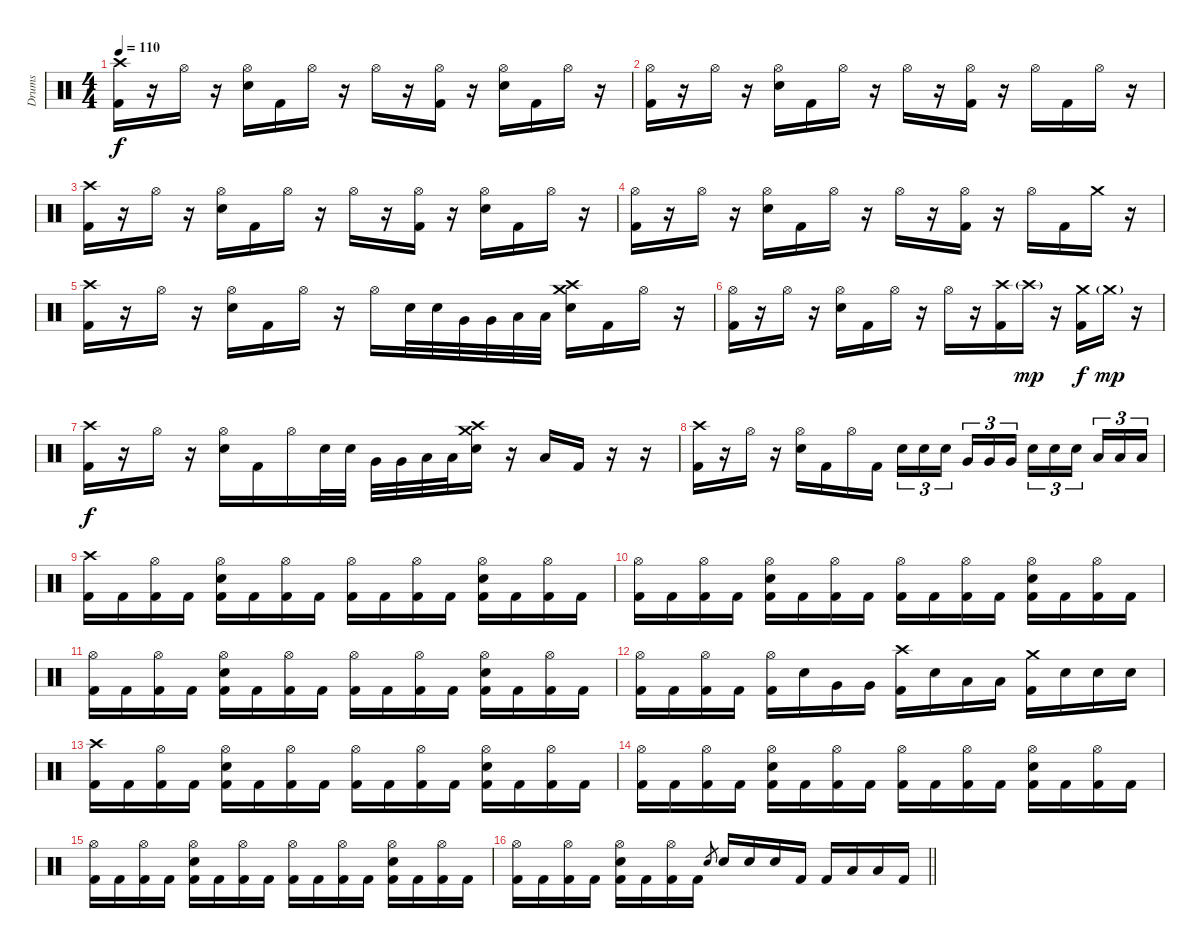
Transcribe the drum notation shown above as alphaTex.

\track ("Drums" "Drums") {instrument percussion}
\staff {score}
\articulation defaults
\ts (4 4)
\tempo 110
\clef neutral
\ks c
("Crash high (hit)" "Kick (hit) 2").16{dy f} r.16 "Hi-Hat (open)".16 r.16 ("Hi-Hat (open)" "Electric Snare (hit)").16 "Kick (hit) 2".16 "Hi-Hat (open)".16 r.16 "Hi-Hat (open)".16 r.16 ("Hi-Hat (open)" "Kick (hit) 2").16 r.16 ("Hi-Hat (open)" "Electric Snare (hit)").16 "Kick (hit) 2".16 "Hi-Hat (open)".16 r.16 |
("Hi-Hat (open)" "Kick (hit) 2").16 r.16 "Hi-Hat (open)".16 r.16 ("Hi-Hat (open)" "Electric Snare (hit)").16 "Kick (hit) 2".16 "Hi-Hat (open)".16 r.16 "Hi-Hat (open)".16 r.16 ("Hi-Hat (open)" "Kick (hit) 2").16 r.16 "Hi-Hat (open)".16 "Kick (hit) 2".16 "Hi-Hat (open)".16 r.16 |
("Crash high (hit)" "Kick (hit) 2").16 r.16 "Hi-Hat (open)".16 r.16 ("Hi-Hat (open)" "Electric Snare (hit)").16 "Kick (hit) 2".16 "Hi-Hat (open)".16 r.16 "Hi-Hat (open)".16 r.16 ("Hi-Hat (open)" "Kick (hit) 2").16 r.16 ("Hi-Hat (open)" "Electric Snare (hit)").16 "Kick (hit) 2".16 "Hi-Hat (open)".16 r.16 |
("Hi-Hat (open)" "Kick (hit) 2").16 r.16 "Hi-Hat (open)".16 r.16 ("Hi-Hat (open)" "Electric Snare (hit)").16 "Kick (hit) 2".16 "Hi-Hat (open)".16 r.16 "Hi-Hat (open)".16 r.16 ("Hi-Hat (open)" "Kick (hit) 2").16 r.16 "Hi-Hat (open)".16 "Kick (hit) 2".16 "Crash medium (hit)".16 r.16 |
("Crash high (hit)" "Kick (hit) 2").16 r.16 "Hi-Hat (open)".16 r.16 ("Hi-Hat (open)" "Electric Snare (hit)").16 "Kick (hit) 2".16 "Hi-Hat (open)".16 r.16 "Hi-Hat (open)".16 "Electric Snare (hit)".32 "Electric Snare (hit)".32 "Very Low Tom (hit)".32 "Very Low Tom (hit)".32 "Low Floor Tom (hit)".32 "Low Floor Tom (hit)".32 ("Crash high (hit)" "Electric Snare (hit)" "Crash medium (hit)").16 "Kick (hit) 2".16 "Hi-Hat (open)".16 r.16 |
("Hi-Hat (open)" "Kick (hit) 2").16 r.16 "Hi-Hat (open)".16 r.16 ("Hi-Hat (open)" "Electric Snare (hit)").16 "Kick (hit) 2".16 "Hi-Hat (open)".16 r.16 "Hi-Hat (open)".16 r.16 ("Crash high (hit)" "Kick (hit) 2").16 "Crash high (hit)"{g}.16{dy mp} r.16 ("Crash medium (hit)" "Kick (hit) 2").16{dy f} "Crash medium (hit)"{g}.16{dy mp} r.16 |
("Crash high (hit)" "Kick (hit) 2").16{dy f} r.16 "Hi-Hat (open)".16 r.16 ("Hi-Hat (open)" "Electric Snare (hit)").16 "Kick (hit) 2".16 "Hi-Hat (open)".16 "Electric Snare (hit)".32 "Electric Snare (hit)".32 "Very Low Tom (hit)".32 "Very Low Tom (hit)".32 "Low Floor Tom (hit)".32 "Low Floor Tom (hit)".32 ("Crash high (hit)" "Electric Snare (hit)" "Crash medium (hit)").16 r.16 "Low Floor Tom (hit)".16 "Kick (hit) 2".16 r.16 r.16 |
("Crash high (hit)" "Kick (hit) 2").16 r.16 "Hi-Hat (open)".16 r.16 ("Hi-Hat (open)" "Electric Snare (hit)").16 "Kick (hit) 2".16 "Hi-Hat (open)".16 "Kick (hit) 2".16 "Electric Snare (hit)".16{tu (3 2)} "Electric Snare (hit)".16{tu (3 2)} "Electric Snare (hit)".16{tu (3 2) beam splitsecondary} "Very Low Tom (hit)".16{tu (3 2)} "Very Low Tom (hit)".16{tu (3 2)} "Very Low Tom (hit)".16{tu (3 2)} "Electric Snare (hit)".16{tu (3 2)} "Electric Snare (hit)".16{tu (3 2)} "Electric Snare (hit)".16{tu (3 2) beam splitsecondary} "Low Floor Tom (hit)".16{tu (3 2)} "Low Floor Tom (hit)".16{tu (3 2)} "Low Floor Tom (hit)".16{tu (3 2)} |
("Crash high (hit)" "Kick (hit) 2").16 "Kick (hit) 2".16 ("Hi-Hat (open)" "Kick (hit) 2").16 "Kick (hit) 2".16 ("Hi-Hat (open)" "Kick (hit) 2" "Electric Snare (hit)").16 "Kick (hit) 2".16 ("Hi-Hat (open)" "Kick (hit) 2").16 "Kick (hit) 2".16 ("Hi-Hat (open)" "Kick (hit) 2").16 "Kick (hit) 2".16 ("Hi-Hat (open)" "Kick (hit) 2").16 "Kick (hit) 2".16 ("Hi-Hat (open)" "Kick (hit) 2" "Electric Snare (hit)").16 "Kick (hit) 2".16 ("Hi-Hat (open)" "Kick (hit) 2").16 "Kick (hit) 2".16 |
("Hi-Hat (open)" "Kick (hit) 2").16 "Kick (hit) 2".16 ("Hi-Hat (open)" "Kick (hit) 2").16 "Kick (hit) 2".16 ("Hi-Hat (open)" "Kick (hit) 2" "Electric Snare (hit)").16 "Kick (hit) 2".16 ("Hi-Hat (open)" "Kick (hit) 2").16 "Kick (hit) 2".16 ("Hi-Hat (open)" "Kick (hit) 2").16 "Kick (hit) 2".16 ("Hi-Hat (open)" "Kick (hit) 2").16 "Kick (hit) 2".16 ("Hi-Hat (open)" "Kick (hit) 2" "Electric Snare (hit)").16 "Kick (hit) 2".16 ("Hi-Hat (open)" "Kick (hit) 2").16 "Kick (hit) 2".16 |
("Hi-Hat (open)" "Kick (hit) 2").16 "Kick (hit) 2".16 ("Hi-Hat (open)" "Kick (hit) 2").16 "Kick (hit) 2".16 ("Hi-Hat (open)" "Kick (hit) 2" "Electric Snare (hit)").16 "Kick (hit) 2".16 ("Hi-Hat (open)" "Kick (hit) 2").16 "Kick (hit) 2".16 ("Hi-Hat (open)" "Kick (hit) 2").16 "Kick (hit) 2".16 ("Hi-Hat (open)" "Kick (hit) 2").16 "Kick (hit) 2".16 ("Hi-Hat (open)" "Kick (hit) 2" "Electric Snare (hit)").16 "Kick (hit) 2".16 ("Hi-Hat (open)" "Kick (hit) 2").16 "Kick (hit) 2".16 |
("Hi-Hat (open)" "Kick (hit) 2").16 "Kick (hit) 2".16 ("Hi-Hat (open)" "Kick (hit) 2").16 "Kick (hit) 2".16 ("Hi-Hat (open)" "Kick (hit) 2").16 "Electric Snare (hit)".16 "Very Low Tom (hit)".16 "Very Low Tom (hit)".16 ("Crash high (hit)" "Kick (hit) 2").16 "Electric Snare (hit)".16 "Low Floor Tom (hit)".16 "Low Floor Tom (hit)".16 ("Crash medium (hit)" "Kick (hit) 2").16 "Electric Snare (hit)".16 "Electric Snare (hit)".16 "Electric Snare (hit)".16 |
("Crash high (hit)" "Kick (hit) 2").16 "Kick (hit) 2".16 ("Hi-Hat (open)" "Kick (hit) 2").16 "Kick (hit) 2".16 ("Hi-Hat (open)" "Kick (hit) 2" "Electric Snare (hit)").16 "Kick (hit) 2".16 ("Hi-Hat (open)" "Kick (hit) 2").16 "Kick (hit) 2".16 ("Hi-Hat (open)" "Kick (hit) 2").16 "Kick (hit) 2".16 ("Hi-Hat (open)" "Kick (hit) 2").16 "Kick (hit) 2".16 ("Hi-Hat (open)" "Kick (hit) 2" "Electric Snare (hit)").16 "Kick (hit) 2".16 ("Hi-Hat (open)" "Kick (hit) 2").16 "Kick (hit) 2".16 |
("Hi-Hat (open)" "Kick (hit) 2").16 "Kick (hit) 2".16 ("Hi-Hat (open)" "Kick (hit) 2").16 "Kick (hit) 2".16 ("Hi-Hat (open)" "Kick (hit) 2" "Electric Snare (hit)").16 "Kick (hit) 2".16 ("Hi-Hat (open)" "Kick (hit) 2").16 "Kick (hit) 2".16 ("Hi-Hat (open)" "Kick (hit) 2").16 "Kick (hit) 2".16 ("Hi-Hat (open)" "Kick (hit) 2").16 "Kick (hit) 2".16 ("Hi-Hat (open)" "Kick (hit) 2" "Electric Snare (hit)").16 "Kick (hit) 2".16 ("Hi-Hat (open)" "Kick (hit) 2").16 "Kick (hit) 2".16 |
("Hi-Hat (open)" "Kick (hit) 2").16 "Kick (hit) 2".16 ("Hi-Hat (open)" "Kick (hit) 2").16 "Kick (hit) 2".16 ("Hi-Hat (open)" "Kick (hit) 2" "Electric Snare (hit)").16 "Kick (hit) 2".16 ("Hi-Hat (open)" "Kick (hit) 2").16 "Kick (hit) 2".16 ("Hi-Hat (open)" "Kick (hit) 2").16 "Kick (hit) 2".16 ("Hi-Hat (open)" "Kick (hit) 2").16 "Kick (hit) 2".16 ("Hi-Hat (open)" "Kick (hit) 2" "Electric Snare (hit)").16 "Kick (hit) 2".16 ("Hi-Hat (open)" "Kick (hit) 2").16 "Kick (hit) 2".16 |
\barLineRight lightlight
("Hi-Hat (open)" "Kick (hit) 2").16 "Kick (hit) 2".16 ("Hi-Hat (open)" "Kick (hit) 2").16 "Kick (hit) 2".16 ("Hi-Hat (open)" "Kick (hit) 2" "Electric Snare (hit)").16 "Kick (hit) 2".16 ("Hi-Hat (open)" "Kick (hit) 2").16 "Kick (hit) 2".16 "Electric Snare (hit)".8{gr} "Electric Snare (hit)".16 "Electric Snare (hit)".16 "Electric Snare (hit)".16 "Kick (hit) 2".16 "Kick (hit) 2".16 "Low Floor Tom (hit)".16 "Low Floor Tom (hit)".16 "Kick (hit) 2".16
